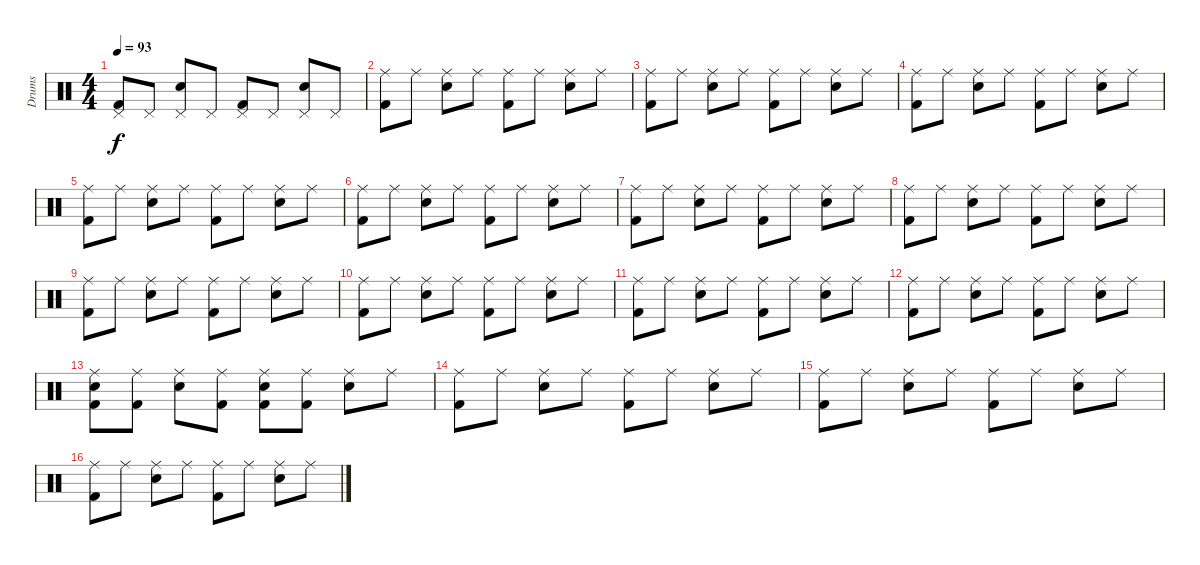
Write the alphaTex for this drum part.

\track ("Drums" "Drums") {instrument percussion}
\staff {score}
\articulation defaults
\ts (4 4)
\tempo 93
\clef neutral
\ks c
("Pedal Hi-Hat (hit)" "Kick (hit) 2").8{dy f} "Pedal Hi-Hat (hit)".8 ("Pedal Hi-Hat (hit)" "Electric Snare (hit)").8 "Pedal Hi-Hat (hit)".8 ("Pedal Hi-Hat (hit)" "Kick (hit) 2").8 "Pedal Hi-Hat (hit)".8 ("Pedal Hi-Hat (hit)" "Electric Snare (hit)").8 "Pedal Hi-Hat (hit)".8 |
("Ride (middle)" "Kick (hit) 2").8 "Ride (middle)".8 ("Ride (middle)" "Electric Snare (hit)").8 "Ride (middle)".8 ("Ride (middle)" "Kick (hit) 2").8 "Ride (middle)".8 ("Ride (middle)" "Electric Snare (hit)").8 "Ride (middle)".8 |
("Ride (middle)" "Kick (hit) 2").8 "Ride (middle)".8 ("Ride (middle)" "Electric Snare (hit)").8 "Ride (middle)".8 ("Ride (middle)" "Kick (hit) 2").8 "Ride (middle)".8 ("Ride (middle)" "Electric Snare (hit)").8 "Ride (middle)".8 |
("Ride (middle)" "Kick (hit) 2").8 "Ride (middle)".8 ("Ride (middle)" "Electric Snare (hit)").8 "Ride (middle)".8 ("Ride (middle)" "Kick (hit) 2").8 "Ride (middle)".8 ("Ride (middle)" "Electric Snare (hit)").8 "Ride (middle)".8 |
("Ride (middle)" "Kick (hit) 2").8 "Ride (middle)".8 ("Ride (middle)" "Electric Snare (hit)").8 "Ride (middle)".8 ("Ride (middle)" "Kick (hit) 2").8 "Ride (middle)".8 ("Ride (middle)" "Electric Snare (hit)").8 "Ride (middle)".8 |
("Ride (middle)" "Kick (hit) 2").8 "Ride (middle)".8 ("Ride (middle)" "Electric Snare (hit)").8 "Ride (middle)".8 ("Ride (middle)" "Kick (hit) 2").8 "Ride (middle)".8 ("Ride (middle)" "Electric Snare (hit)").8 "Ride (middle)".8 |
("Ride (middle)" "Kick (hit) 2").8 "Ride (middle)".8 ("Ride (middle)" "Electric Snare (hit)").8 "Ride (middle)".8 ("Ride (middle)" "Kick (hit) 2").8 "Ride (middle)".8 ("Ride (middle)" "Electric Snare (hit)").8 "Ride (middle)".8 |
("Ride (middle)" "Kick (hit) 2").8 "Ride (middle)".8 ("Ride (middle)" "Electric Snare (hit)").8 "Ride (middle)".8 ("Ride (middle)" "Kick (hit) 2").8 "Ride (middle)".8 ("Ride (middle)" "Electric Snare (hit)").8 "Ride (middle)".8 |
("Ride (middle)" "Kick (hit) 2").8 "Ride (middle)".8 ("Ride (middle)" "Electric Snare (hit)").8 "Ride (middle)".8 ("Ride (middle)" "Kick (hit) 2").8 "Ride (middle)".8 ("Ride (middle)" "Electric Snare (hit)").8 "Ride (middle)".8 |
("Ride (middle)" "Kick (hit) 2").8 "Ride (middle)".8 ("Ride (middle)" "Electric Snare (hit)").8 "Ride (middle)".8 ("Ride (middle)" "Kick (hit) 2").8 "Ride (middle)".8 ("Ride (middle)" "Electric Snare (hit)").8 "Ride (middle)".8 |
("Ride (middle)" "Kick (hit) 2").8 "Ride (middle)".8 ("Ride (middle)" "Electric Snare (hit)").8 "Ride (middle)".8 ("Ride (middle)" "Kick (hit) 2").8 "Ride (middle)".8 ("Ride (middle)" "Electric Snare (hit)").8 "Ride (middle)".8 |
("Ride (middle)" "Kick (hit) 2").8 "Ride (middle)".8 ("Ride (middle)" "Electric Snare (hit)").8 "Ride (middle)".8 ("Ride (middle)" "Kick (hit) 2").8 "Ride (middle)".8 ("Ride (middle)" "Electric Snare (hit)").8 "Ride (middle)".8 |
("Ride (middle)" "Electric Snare (hit)" "Kick (hit) 2").8 ("Ride (middle)" "Kick (hit) 2").8 ("Ride (middle)" "Electric Snare (hit)").8 ("Ride (middle)" "Kick (hit) 2").8 ("Ride (middle)" "Electric Snare (hit)" "Kick (hit) 2").8 ("Ride (middle)" "Kick (hit) 2").8 ("Ride (middle)" "Electric Snare (hit)").8 "Ride (middle)".8 |
("Ride (middle)" "Kick (hit) 2").8 "Ride (middle)".8 ("Ride (middle)" "Electric Snare (hit)").8 "Ride (middle)".8 ("Ride (middle)" "Kick (hit) 2").8 "Ride (middle)".8 ("Ride (middle)" "Electric Snare (hit)").8 "Ride (middle)".8 |
("Ride (middle)" "Kick (hit) 2").8 "Ride (middle)".8 ("Ride (middle)" "Electric Snare (hit)").8 "Ride (middle)".8 ("Ride (middle)" "Kick (hit) 2").8 "Ride (middle)".8 ("Ride (middle)" "Electric Snare (hit)").8 "Ride (middle)".8 |
("Ride (middle)" "Kick (hit) 2").8 "Ride (middle)".8 ("Ride (middle)" "Electric Snare (hit)").8 "Ride (middle)".8 ("Ride (middle)" "Kick (hit) 2").8 "Ride (middle)".8 ("Ride (middle)" "Electric Snare (hit)").8 "Ride (middle)".8
